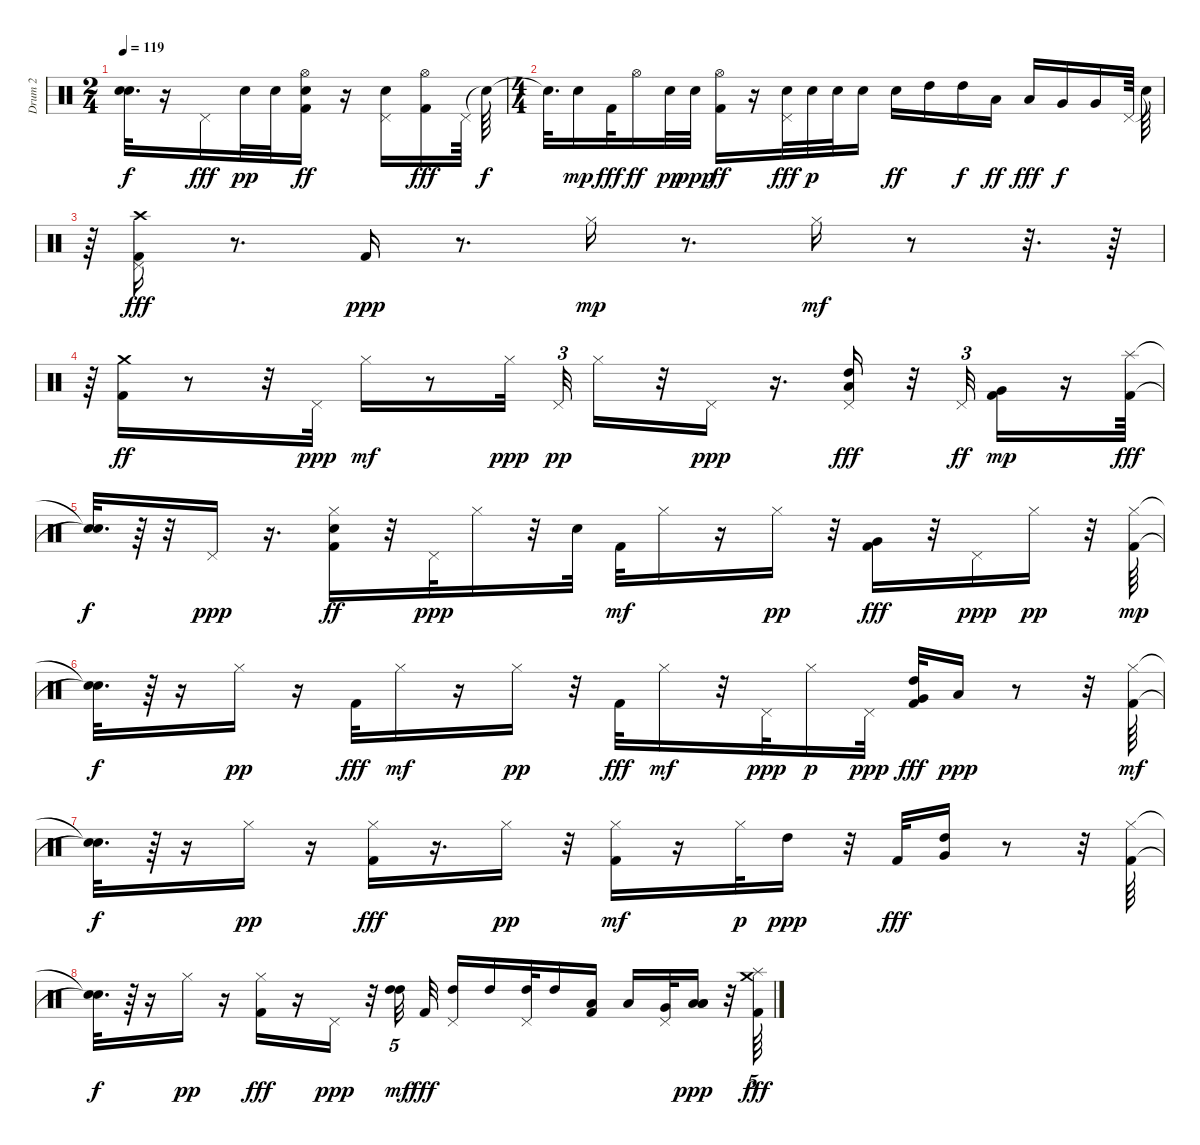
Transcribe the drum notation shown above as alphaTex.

\track ("Drum 2                          " "Drum 2    ") {instrument percussion}
\staff {score}
\articulation defaults
\ts (2 4)
\tempo 119
\clef neutral
\ks c
("Snare (hit)"{t} "Snare (hit)"{t}).32{d dy f} r.16 "Pedal Hi-Hat (hit)".16{dy fff} "Snare (hit) 2".32{dy pp} "Snare (hit) 2".32 ("Kick (hit) 2" "Snare (hit) 2" "Hi-Hat (open)").16{dy ff} r.16 ("Pedal Hi-Hat (hit)" "Electric Snare (hit)").16 ("Kick (hit) 2" "Hi-Hat (open)").16{dy fff} "Pedal Hi-Hat (hit)".64 "Snare (hit)"{t}.64{dy f} |
\ts (4 4)
"Snare (hit)"{t}.32{d} "Snare (hit) 2".16{dy mp} "Kick (hit) 2".32{dy fff} "Hi-Hat (open)".16{dy ff} "Snare (hit) 2".32{dy pp} "Snare (hit) 2".32{dy ppp} ("Kick (hit) 2" "Hi-Hat (open)").16{dy ff} r.16 ("Pedal Hi-Hat (hit)" "Snare (hit) 2").32{dy fff} "Snare (hit) 2".32{dy p} "Snare (hit) 2".32 "Snare (hit) 2".16 "Electric Snare (hit)".16{dy ff} "High Tom (hit)".16 "High Tom (hit)".16{dy f} "Low Tom (hit)".16{dy ff} "Low Tom (hit)".16{dy fff} "Very Low Tom (hit)".16{dy f} "Very Low Tom (hit)".16 "Pedal Hi-Hat (hit)".64 "Snare (hit)"{t}.64 |
r.64 ("Kick (hit) 2" "Crash high (hit)" "Pedal Hi-Hat (hit)").16{dy fff} r.8{d} "Kick (hit) 2".16{dy ppp} r.8{d} "Hi-Hat (closed)".16{dy mp} r.8{d} "Hi-Hat (closed)".16{dy mf} r.8 r.32{d} r.64 |
r.64 ("Kick (hit) 2" "Crash medium (hit)").16{dy ff} r.8 r.32 "Pedal Hi-Hat (hit)".32{dy ppp} "Hi-Hat (closed)".16{dy mf} r.8 "Hi-Hat (closed)".32{dy ppp} "Pedal Hi-Hat (hit)".32{tu (3 2) dy pp} "Hi-Hat (closed)".16 r.32 "Pedal Hi-Hat (hit)".16{dy ppp} r.16{d} ("Pedal Hi-Hat (hit)" "High Tom (hit)" "Low Tom (hit)").16{dy fff} r.32 "Pedal Hi-Hat (hit)".32{tu (3 2) dy ff} ("Kick (hit) 2" "Very Low Tom (hit)").16{dy mp} r.16 ("Splash (hit)" "Kick (hit) 2").64{dy fff} |
("Snare (hit)"{t} "Snare (hit)"{t}).32{d dy f} r.64 r.32 "Pedal Hi-Hat (hit)".16{dy ppp} r.16{d} ("Snare (hit) 2" "Kick (hit) 2" "Hi-Hat (closed)").16{dy ff} r.32 "Pedal Hi-Hat (hit)".32{dy ppp} "Hi-Hat (closed)".16 r.32 "Snare (hit) 2".32 "Kick (hit) 2".32{dy mf} "Hi-Hat (closed)".16 r.16 "Hi-Hat (closed)".16{dy pp} r.32 ("Kick (hit) 2" "Very Low Tom (hit)").16{dy fff} r.32 "Pedal Hi-Hat (hit)".16{dy ppp} "Hi-Hat (closed)".16{dy pp} r.32 ("Kick (hit) 2" "Hi-Hat (closed)").64{dy mp} |
("Snare (hit)"{t} "Snare (hit)"{t}).32{d dy f} r.64 r.16 "Hi-Hat (closed)".16{dy pp} r.16 "Kick (hit) 2".32{dy fff} "Hi-Hat (closed)".16{dy mf} r.16 "Hi-Hat (closed)".16{dy pp} r.32 "Kick (hit) 2".32{dy fff} "Hi-Hat (closed)".16{dy mf} r.32 "Pedal Hi-Hat (hit)".32{dy ppp} "Hi-Hat (closed)".16{dy p} "Pedal Hi-Hat (hit)".32{dy ppp} ("Kick (hit) 2" "High Tom (hit)" "Very Low Tom (hit)").32{dy fff} "Low Floor Tom (hit)".16{dy ppp} r.8 r.32 ("Kick (hit) 2" "Hi-Hat (closed)").64{dy mf} |
("Snare (hit)"{t} "Snare (hit)"{t}).32{d dy f} r.64 r.16 "Hi-Hat (closed)".16{dy pp} r.16 ("Kick (hit) 2" "Hi-Hat (closed)").16{dy fff} r.16{d} "Hi-Hat (closed)".16{dy pp} r.32 ("Kick (hit) 2" "Hi-Hat (closed)").16{dy mf} r.16 "Hi-Hat (closed)".32{dy p} "High Tom (hit)".16{dy ppp} r.32 "Kick (hit) 2".32{dy fff} ("High Tom (hit)" "Very Low Tom (hit)").16 r.8 r.32 ("Kick (hit) 2" "Hi-Hat (closed)").64 |
("Snare (hit)"{t} "Snare (hit)"{t}).32{d dy f} r.64 r.16 "Hi-Hat (closed)".16{dy pp} r.16 ("Hi-Hat (closed)" "Kick (hit) 2").16{dy fff} r.16 "Pedal Hi-Hat (hit)".16{dy ppp} r.32 ("High Tom (hit)" "High Tom (hit)").32{tu (5 4) dy mf} "Kick (hit) 2".32{dy fff} ("Pedal Hi-Hat (hit)" "High Tom (hit)").16 "High Tom (hit)".16 ("Pedal Hi-Hat (hit)" "High Tom (hit)").32 "High Tom (hit)".16 ("Kick (hit) 2" "Low Tom (hit)").16 "Low Tom (hit)".16 ("Pedal Hi-Hat (hit)" "Very Low Tom (hit)").32 ("Low Floor Tom (hit)" "Low Floor Tom (hit)" "Low Floor Tom (hit)").16{dy ppp} r.32 ("Kick (hit) 2" "Splash (hit)" "Crash medium (hit)").64{tu (5 4) dy fff}
